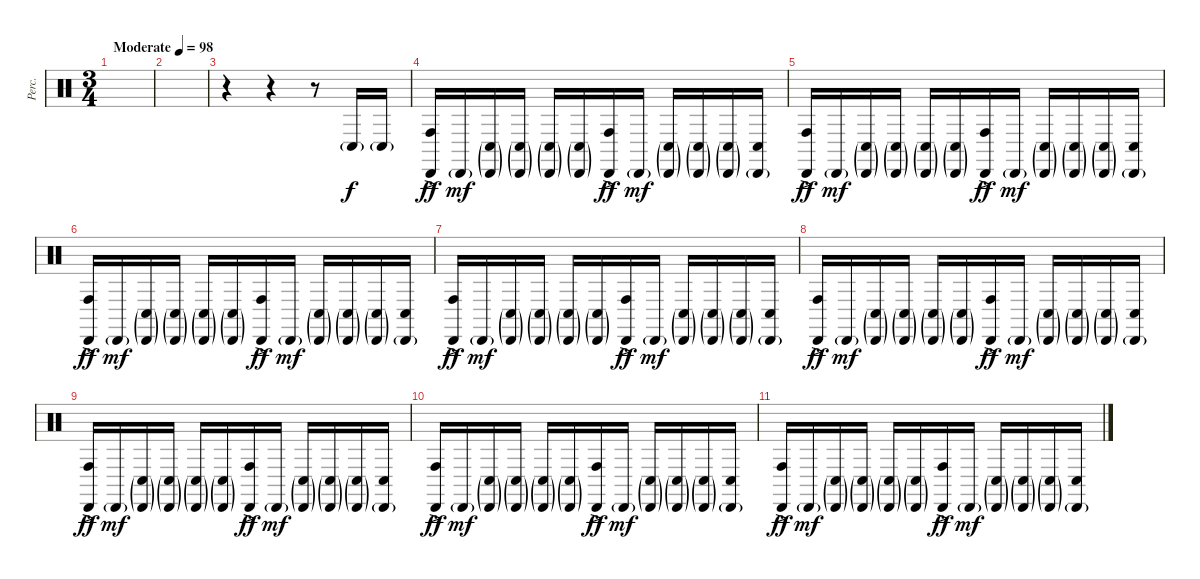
\track ("Perc." "Perc.") {instrument percussion}
\staff {score}
\articulation defaults
\ts (3 4)
\tempo (98 "Moderate")
\clef neutral
\ks c
|
|
r.4 r.4 r.8 "Conga low (hit)"{g}.16 "Conga low (hit)"{g}.16 |
("Cabasa (hit)" "Conga high (hit)"{ac}).16{dy ff} "Cabasa (hit)"{g}.16{dy mf} ("Cabasa (hit)"{g} "Conga low (hit)"{g}).16 ("Cabasa (hit)"{g} "Conga low (hit)"{g}).16 ("Cabasa (hit)"{g} "Conga low (hit)"{g}).16 ("Cabasa (hit)"{g} "Conga low (hit)"{g}).16 ("Cabasa (hit)" "Conga high (hit)"{ac}).16{dy ff} "Cabasa (hit)"{g}.16{dy mf} ("Cabasa (hit)"{g} "Conga low (hit)"{g}).16 ("Cabasa (hit)"{g} "Conga low (hit)"{g}).16 ("Cabasa (hit)"{g} "Conga low (hit)"{g}).16 ("Cabasa (hit)"{g} "Conga low (hit)").16 |
("Cabasa (hit)" "Conga high (hit)"{ac}).16{dy ff} "Cabasa (hit)"{g}.16{dy mf} ("Cabasa (hit)"{g} "Conga low (hit)"{g}).16 ("Cabasa (hit)"{g} "Conga low (hit)"{g}).16 ("Cabasa (hit)"{g} "Conga low (hit)"{g}).16 ("Cabasa (hit)"{g} "Conga low (hit)"{g}).16 ("Cabasa (hit)" "Conga high (hit)"{ac}).16{dy ff} "Cabasa (hit)"{g}.16{dy mf} ("Cabasa (hit)"{g} "Conga low (hit)"{g}).16 ("Cabasa (hit)"{g} "Conga low (hit)"{g}).16 ("Cabasa (hit)"{g} "Conga low (hit)"{g}).16 ("Cabasa (hit)"{g} "Conga low (hit)").16 |
("Cabasa (hit)" "Conga high (hit)"{ac}).16{dy ff} "Cabasa (hit)"{g}.16{dy mf} ("Cabasa (hit)"{g} "Conga low (hit)"{g}).16 ("Cabasa (hit)"{g} "Conga low (hit)"{g}).16 ("Cabasa (hit)"{g} "Conga low (hit)"{g}).16 ("Cabasa (hit)"{g} "Conga low (hit)"{g}).16 ("Cabasa (hit)" "Conga high (hit)"{ac}).16{dy ff} "Cabasa (hit)"{g}.16{dy mf} ("Cabasa (hit)"{g} "Conga low (hit)"{g}).16 ("Cabasa (hit)"{g} "Conga low (hit)"{g}).16 ("Cabasa (hit)"{g} "Conga low (hit)"{g}).16 ("Cabasa (hit)"{g} "Conga low (hit)").16 |
("Cabasa (hit)" "Conga high (hit)"{ac}).16{dy ff} "Cabasa (hit)"{g}.16{dy mf} ("Cabasa (hit)"{g} "Conga low (hit)"{g}).16 ("Cabasa (hit)"{g} "Conga low (hit)"{g}).16 ("Cabasa (hit)"{g} "Conga low (hit)"{g}).16 ("Cabasa (hit)"{g} "Conga low (hit)"{g}).16 ("Cabasa (hit)" "Conga high (hit)"{ac}).16{dy ff} "Cabasa (hit)"{g}.16{dy mf} ("Cabasa (hit)"{g} "Conga low (hit)"{g}).16 ("Cabasa (hit)"{g} "Conga low (hit)"{g}).16 ("Cabasa (hit)"{g} "Conga low (hit)"{g}).16 ("Cabasa (hit)"{g} "Conga low (hit)").16 |
("Cabasa (hit)" "Conga high (hit)"{ac}).16{dy ff} "Cabasa (hit)"{g}.16{dy mf} ("Cabasa (hit)"{g} "Conga low (hit)"{g}).16 ("Cabasa (hit)"{g} "Conga low (hit)"{g}).16 ("Cabasa (hit)"{g} "Conga low (hit)"{g}).16 ("Cabasa (hit)"{g} "Conga low (hit)"{g}).16 ("Cabasa (hit)" "Conga high (hit)"{ac}).16{dy ff} "Cabasa (hit)"{g}.16{dy mf} ("Cabasa (hit)"{g} "Conga low (hit)"{g}).16 ("Cabasa (hit)"{g} "Conga low (hit)"{g}).16 ("Cabasa (hit)"{g} "Conga low (hit)"{g}).16 ("Cabasa (hit)"{g} "Conga low (hit)").16 |
("Cabasa (hit)" "Conga high (hit)"{ac}).16{dy ff} "Cabasa (hit)"{g}.16{dy mf} ("Cabasa (hit)"{g} "Conga low (hit)"{g}).16 ("Cabasa (hit)"{g} "Conga low (hit)"{g}).16 ("Cabasa (hit)"{g} "Conga low (hit)"{g}).16 ("Cabasa (hit)"{g} "Conga low (hit)"{g}).16 ("Cabasa (hit)" "Conga high (hit)"{ac}).16{dy ff} "Cabasa (hit)"{g}.16{dy mf} ("Cabasa (hit)"{g} "Conga low (hit)"{g}).16 ("Cabasa (hit)"{g} "Conga low (hit)"{g}).16 ("Cabasa (hit)"{g} "Conga low (hit)"{g}).16 ("Cabasa (hit)"{g} "Conga low (hit)").16 |
("Cabasa (hit)" "Conga high (hit)"{ac}).16{dy ff} "Cabasa (hit)"{g}.16{dy mf} ("Cabasa (hit)"{g} "Conga low (hit)"{g}).16 ("Cabasa (hit)"{g} "Conga low (hit)"{g}).16 ("Cabasa (hit)"{g} "Conga low (hit)"{g}).16 ("Cabasa (hit)"{g} "Conga low (hit)"{g}).16 ("Cabasa (hit)" "Conga high (hit)"{ac}).16{dy ff} "Cabasa (hit)"{g}.16{dy mf} ("Cabasa (hit)"{g} "Conga low (hit)"{g}).16 ("Cabasa (hit)"{g} "Conga low (hit)"{g}).16 ("Cabasa (hit)"{g} "Conga low (hit)"{g}).16 ("Cabasa (hit)"{g} "Conga low (hit)").16 |
("Cabasa (hit)" "Conga high (hit)"{ac}).16{dy ff} "Cabasa (hit)"{g}.16{dy mf} ("Cabasa (hit)"{g} "Conga low (hit)"{g}).16 ("Cabasa (hit)"{g} "Conga low (hit)"{g}).16 ("Cabasa (hit)"{g} "Conga low (hit)"{g}).16 ("Cabasa (hit)"{g} "Conga low (hit)"{g}).16 ("Cabasa (hit)" "Conga high (hit)"{ac}).16{dy ff} "Cabasa (hit)"{g}.16{dy mf} ("Cabasa (hit)"{g} "Conga low (hit)"{g}).16 ("Cabasa (hit)"{g} "Conga low (hit)"{g}).16 ("Cabasa (hit)"{g} "Conga low (hit)"{g}).16 ("Cabasa (hit)"{g} "Conga low (hit)").16
